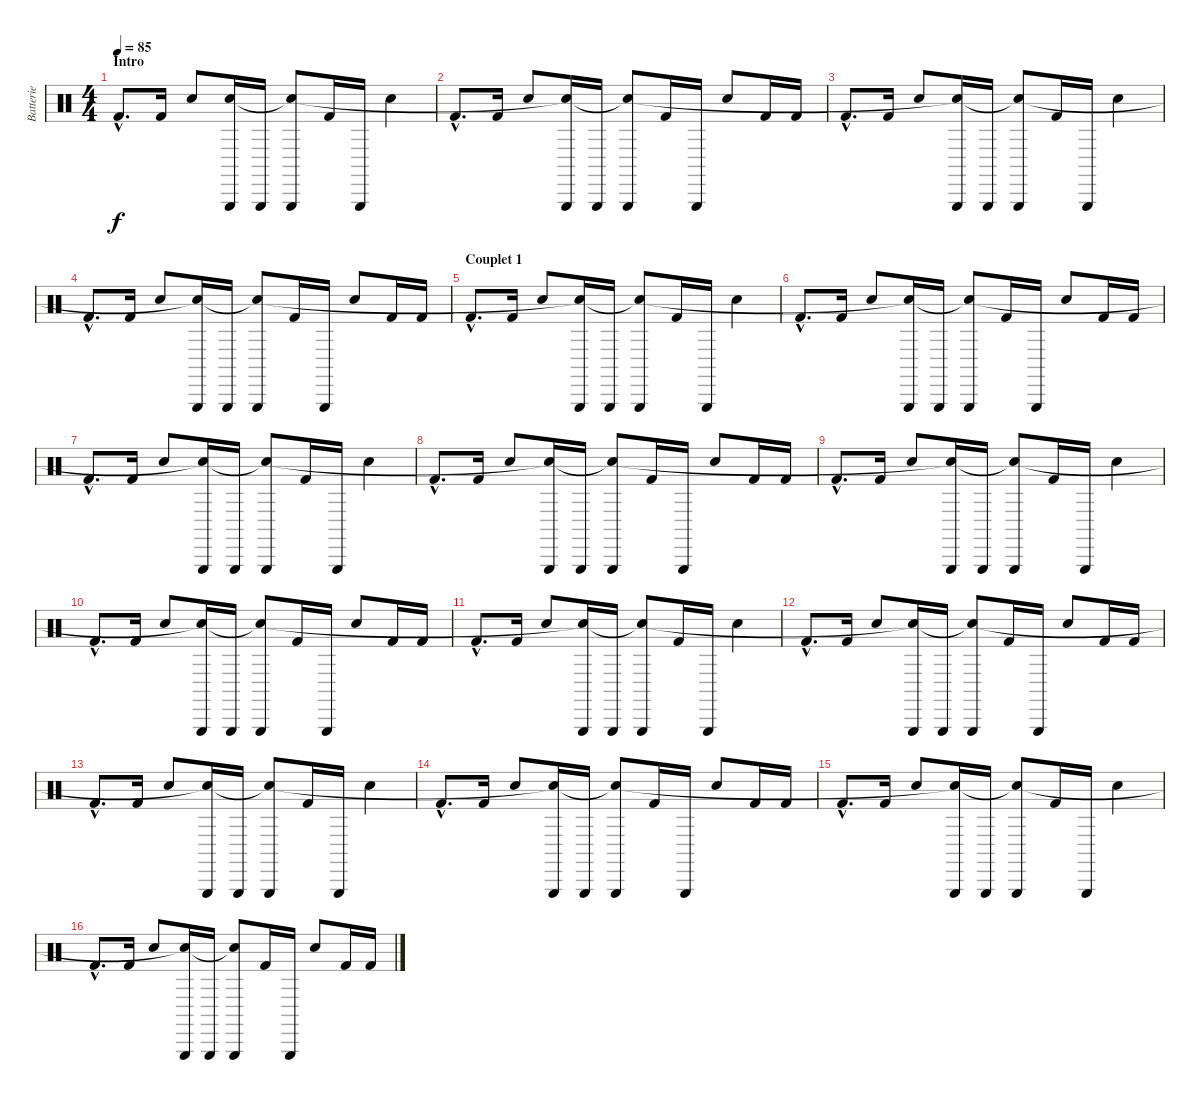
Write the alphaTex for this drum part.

\track ("Batterie" "Batterie") {instrument percussion}
\staff {score}
\articulation defaults
\ts (4 4)
\section ("" "Intro")
\tempo 85
\clef neutral
\ks c "Kick (hit) 2"{hac}.8{d dy f} "Kick (hit) 2".16 "Hand Clap (hit)".8
("Triangle (hit)" "Snare (hit)").16 "Triangle (hit)".16 ("Triangle (hit)" "Snare (hit)"{t}).8 "Kick (hit) 2".16 "Triangle (hit)".16 "Hand Clap (hit)".4 |
"Kick (hit) 2"{hac}.8{d} "Kick (hit) 2".16 "Hand Clap (hit)".8 ("Triangle (hit)" "Snare (hit)"{t}).16 "Triangle (hit)".16 ("Triangle (hit)" "Snare (hit)"{t}).8 "Kick (hit) 2".16 "Triangle (hit)".16 "Hand Clap (hit)".8 "Kick (hit) 2".16 "Kick (hit) 2".16 |
"Kick (hit) 2"{hac}.8{d} "Kick (hit) 2".16 "Hand Clap (hit)".8 ("Triangle (hit)" "Snare (hit)"{t}).16 "Triangle (hit)".16 ("Triangle (hit)" "Snare (hit)"{t}).8 "Kick (hit) 2".16 "Triangle (hit)".16 "Hand Clap (hit)".4 |
"Kick (hit) 2"{hac}.8{d} "Kick (hit) 2".16 "Hand Clap (hit)".8 ("Triangle (hit)" "Snare (hit)"{t}).16 "Triangle (hit)".16 ("Triangle (hit)" "Snare (hit)"{t}).8 "Kick (hit) 2".16 "Triangle (hit)".16 "Hand Clap (hit)".8 "Kick (hit) 2".16 "Kick (hit) 2".16 |
\section ("" "Couplet 1")
"Kick (hit) 2"{hac}.8{d} "Kick (hit) 2".16 "Hand Clap (hit)".8 ("Triangle (hit)" "Snare (hit)"{t}).16 "Triangle (hit)".16 ("Triangle (hit)" "Snare (hit)"{t}).8 "Kick (hit) 2".16 "Triangle (hit)".16 "Hand Clap (hit)".4 |
"Kick (hit) 2"{hac}.8{d} "Kick (hit) 2".16 "Hand Clap (hit)".8 ("Triangle (hit)" "Snare (hit)"{t}).16 "Triangle (hit)".16 ("Triangle (hit)" "Snare (hit)"{t}).8 "Kick (hit) 2".16 "Triangle (hit)".16 "Hand Clap (hit)".8 "Kick (hit) 2".16 "Kick (hit) 2".16 |
"Kick (hit) 2"{hac}.8{d} "Kick (hit) 2".16 "Hand Clap (hit)".8 ("Triangle (hit)" "Snare (hit)"{t}).16 "Triangle (hit)".16 ("Triangle (hit)" "Snare (hit)"{t}).8 "Kick (hit) 2".16 "Triangle (hit)".16 "Hand Clap (hit)".4 |
"Kick (hit) 2"{hac}.8{d} "Kick (hit) 2".16 "Hand Clap (hit)".8 ("Triangle (hit)" "Snare (hit)"{t}).16 "Triangle (hit)".16 ("Triangle (hit)" "Snare (hit)"{t}).8 "Kick (hit) 2".16 "Triangle (hit)".16 "Hand Clap (hit)".8 "Kick (hit) 2".16 "Kick (hit) 2".16 |
"Kick (hit) 2"{hac}.8{d} "Kick (hit) 2".16 "Hand Clap (hit)".8 ("Triangle (hit)" "Snare (hit)"{t}).16 "Triangle (hit)".16 ("Triangle (hit)" "Snare (hit)"{t}).8 "Kick (hit) 2".16 "Triangle (hit)".16 "Hand Clap (hit)".4 |
"Kick (hit) 2"{hac}.8{d} "Kick (hit) 2".16 "Hand Clap (hit)".8 ("Triangle (hit)" "Snare (hit)"{t}).16 "Triangle (hit)".16 ("Triangle (hit)" "Snare (hit)"{t}).8 "Kick (hit) 2".16 "Triangle (hit)".16 "Hand Clap (hit)".8 "Kick (hit) 2".16 "Kick (hit) 2".16 |
"Kick (hit) 2"{hac}.8{d} "Kick (hit) 2".16 "Hand Clap (hit)".8 ("Triangle (hit)" "Snare (hit)"{t}).16 "Triangle (hit)".16 ("Triangle (hit)" "Snare (hit)"{t}).8 "Kick (hit) 2".16 "Triangle (hit)".16 "Hand Clap (hit)".4 |
"Kick (hit) 2"{hac}.8{d} "Kick (hit) 2".16 "Hand Clap (hit)".8 ("Triangle (hit)" "Snare (hit)"{t}).16 "Triangle (hit)".16 ("Triangle (hit)" "Snare (hit)"{t}).8 "Kick (hit) 2".16 "Triangle (hit)".16 "Hand Clap (hit)".8 "Kick (hit) 2".16 "Kick (hit) 2".16 |
"Kick (hit) 2"{hac}.8{d} "Kick (hit) 2".16 "Hand Clap (hit)".8 ("Triangle (hit)" "Snare (hit)"{t}).16 "Triangle (hit)".16 ("Triangle (hit)" "Snare (hit)"{t}).8 "Kick (hit) 2".16 "Triangle (hit)".16 "Hand Clap (hit)".4 |
"Kick (hit) 2"{hac}.8{d} "Kick (hit) 2".16 "Hand Clap (hit)".8 ("Triangle (hit)" "Snare (hit)"{t}).16 "Triangle (hit)".16 ("Triangle (hit)" "Snare (hit)"{t}).8 "Kick (hit) 2".16 "Triangle (hit)".16 "Hand Clap (hit)".8 "Kick (hit) 2".16 "Kick (hit) 2".16 |
"Kick (hit) 2"{hac}.8{d} "Kick (hit) 2".16 "Hand Clap (hit)".8 ("Triangle (hit)" "Snare (hit)"{t}).16 "Triangle (hit)".16 ("Triangle (hit)" "Snare (hit)"{t}).8 "Kick (hit) 2".16 "Triangle (hit)".16 "Hand Clap (hit)".4 |
"Kick (hit) 2"{hac}.8{d} "Kick (hit) 2".16 "Hand Clap (hit)".8 ("Triangle (hit)" "Snare (hit)"{t}).16 "Triangle (hit)".16 ("Triangle (hit)" "Snare (hit)"{t}).8 "Kick (hit) 2".16 "Triangle (hit)".16 "Hand Clap (hit)".8 "Kick (hit) 2".16 "Kick (hit) 2".16
